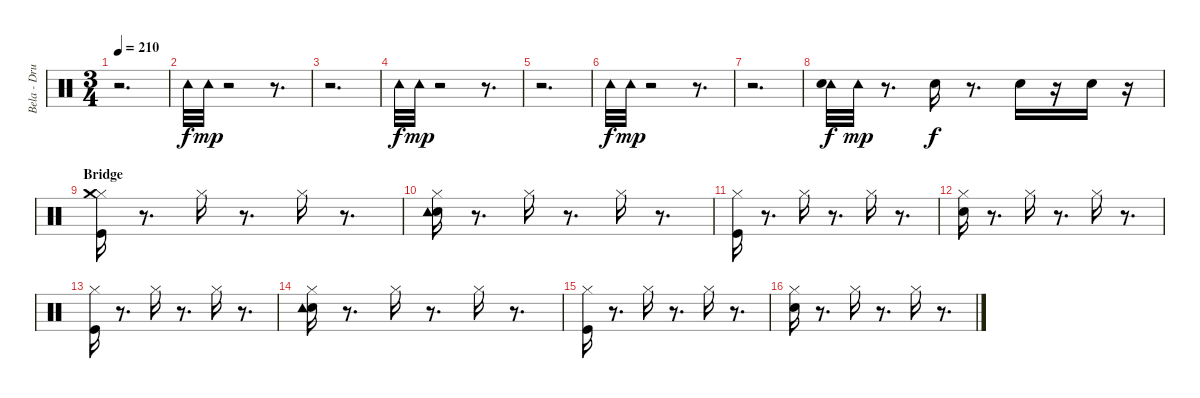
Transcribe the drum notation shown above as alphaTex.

\track ("Bela - Drums" "Bela - Dru") {instrument percussion}
\staff {score}
\articulation defaults
\ts (3 4)
\tempo 210
\clef neutral
\ks c
r.2{d dy f} |
"Tambourine (hit)".32 "Tambourine (hit)".32{dy mp} r.2 r.8{d} |
r.2{d} |
"Tambourine (hit)".32{dy f} "Tambourine (hit)".32{dy mp} r.2 r.8{d} |
r.2{d} |
"Tambourine (hit)".32{dy f} "Tambourine (hit)".32{dy mp} r.2 r.8{d} |
r.2{d} |
("Tambourine (hit)" "Electric Snare (hit)").32{dy f} "Tambourine (hit)".32{dy mp} r.8{d} "Electric Snare (hit)".16{dy f} r.8{d} "Electric Snare (hit)".16 r.16 "Electric Snare (hit)".16 r.16 |
\section ("" "Bridge")
("Kick (hit)" "Hi-Hat (closed)" "Crash medium (hit)").16 r.8{d} "Hi-Hat (closed)".16 r.8{d} "Hi-Hat (closed)".16 r.8{d} |
("Hi-Hat (closed)" "Electric Snare (hit)" "Tambourine (hit)").16 r.8{d} "Hi-Hat (closed)".16 r.8{d} "Hi-Hat (closed)".16 r.8{d} |
("Kick (hit)" "Hi-Hat (closed)").16 r.8{d} "Hi-Hat (closed)".16 r.8{d} "Hi-Hat (closed)".16 r.8{d} |
("Hi-Hat (closed)" "Electric Snare (hit)").16 r.8{d} "Hi-Hat (closed)".16 r.8{d} "Hi-Hat (closed)".16 r.8{d} |
("Kick (hit)" "Hi-Hat (closed)").16 r.8{d} "Hi-Hat (closed)".16 r.8{d} "Hi-Hat (closed)".16 r.8{d} |
("Hi-Hat (closed)" "Electric Snare (hit)" "Tambourine (hit)").16 r.8{d} "Hi-Hat (closed)".16 r.8{d} "Hi-Hat (closed)".16 r.8{d} |
("Kick (hit)" "Hi-Hat (closed)").16 r.8{d} "Hi-Hat (closed)".16 r.8{d} "Hi-Hat (closed)".16 r.8{d} |
("Hi-Hat (closed)" "Electric Snare (hit)").16 r.8{d} "Hi-Hat (closed)".16 r.8{d} "Hi-Hat (closed)".16 r.8{d}
